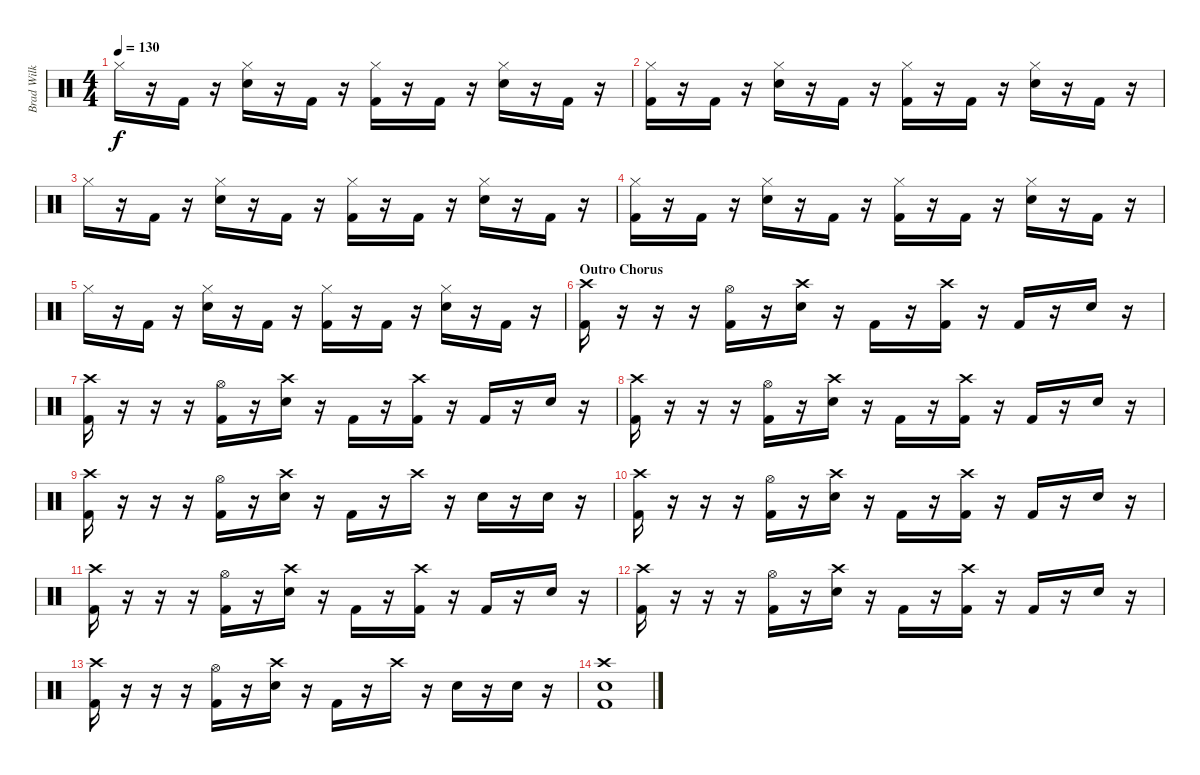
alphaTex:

\track ("Brad Wilk - Drums" "Brad Wilk ") {instrument percussion}
\staff {score}
\articulation defaults
\ts (4 4)
\tempo 130
\clef neutral
\ks c "Hi-Hat (closed)".16{dy f}
r.16 "Kick (hit) 2".16 r.16 ("Hi-Hat (closed)" "Electric Snare (hit)").16 r.16 "Kick (hit) 2".16 r.16 ("Hi-Hat (closed)" "Kick (hit) 2").16 r.16 "Kick (hit) 2".16 r.16 ("Hi-Hat (closed)" "Electric Snare (hit)").16 r.16 "Kick (hit) 2".16 r.16 |
("Hi-Hat (closed)" "Kick (hit) 2").16 r.16 "Kick (hit) 2".16 r.16 ("Hi-Hat (closed)" "Electric Snare (hit)").16 r.16 "Kick (hit) 2".16 r.16 ("Hi-Hat (closed)" "Kick (hit) 2").16 r.16 "Kick (hit) 2".16 r.16 ("Hi-Hat (closed)" "Electric Snare (hit)").16 r.16 "Kick (hit) 2".16 r.16 |
"Hi-Hat (closed)".16 r.16 "Kick (hit) 2".16 r.16 ("Hi-Hat (closed)" "Electric Snare (hit)").16 r.16 "Kick (hit) 2".16 r.16 ("Hi-Hat (closed)" "Kick (hit) 2").16 r.16 "Kick (hit) 2".16 r.16 ("Hi-Hat (closed)" "Electric Snare (hit)").16 r.16 "Kick (hit) 2".16 r.16 |
("Hi-Hat (closed)" "Kick (hit) 2").16 r.16 "Kick (hit) 2".16 r.16 ("Hi-Hat (closed)" "Electric Snare (hit)").16 r.16 "Kick (hit) 2".16 r.16 ("Hi-Hat (closed)" "Kick (hit) 2").16 r.16 "Kick (hit) 2".16 r.16 ("Hi-Hat (closed)" "Electric Snare (hit)").16 r.16 "Kick (hit) 2".16 r.16 |
"Hi-Hat (closed)".16 r.16 "Kick (hit) 2".16 r.16 ("Hi-Hat (closed)" "Electric Snare (hit)").16 r.16 "Kick (hit) 2".16 r.16 ("Hi-Hat (closed)" "Kick (hit) 2").16 r.16 "Kick (hit) 2".16 r.16 ("Hi-Hat (closed)" "Electric Snare (hit)").16 r.16 "Kick (hit) 2".16 r.16 |
\section ("" "Outro Chorus")
("Crash high (hit)" "Kick (hit) 2").16 r.16 r.16 r.16 ("Hi-Hat (open)" "Kick (hit) 2").16 r.16 ("Crash high (hit)" "Electric Snare (hit)").16 r.16 "Kick (hit) 2".16 r.16 ("Crash high (hit)" "Kick (hit) 2").16 r.16 "Kick (hit) 2".16 r.16 "Electric Snare (hit)".16 r.16 |
("Crash high (hit)" "Kick (hit) 2").16 r.16 r.16 r.16 ("Hi-Hat (open)" "Kick (hit) 2").16 r.16 ("Crash high (hit)" "Electric Snare (hit)").16 r.16 "Kick (hit) 2".16 r.16 ("Crash high (hit)" "Kick (hit) 2").16 r.16 "Kick (hit) 2".16 r.16 "Electric Snare (hit)".16 r.16 |
("Crash high (hit)" "Kick (hit) 2").16 r.16 r.16 r.16 ("Hi-Hat (open)" "Kick (hit) 2").16 r.16 ("Crash high (hit)" "Electric Snare (hit)").16 r.16 "Kick (hit) 2".16 r.16 ("Crash high (hit)" "Kick (hit) 2").16 r.16 "Kick (hit) 2".16 r.16 "Electric Snare (hit)".16 r.16 |
("Crash high (hit)" "Kick (hit) 2").16 r.16 r.16 r.16 ("Hi-Hat (open)" "Kick (hit) 2").16 r.16 ("Crash high (hit)" "Electric Snare (hit)").16 r.16 "Kick (hit) 2".16 r.16 "Crash high (hit)".16 r.16 "Electric Snare (hit)".16 r.16 "Electric Snare (hit)".16 r.16 |
("Crash high (hit)" "Kick (hit) 2").16 r.16 r.16 r.16 ("Hi-Hat (open)" "Kick (hit) 2").16 r.16 ("Crash high (hit)" "Electric Snare (hit)").16 r.16 "Kick (hit) 2".16 r.16 ("Crash high (hit)" "Kick (hit) 2").16 r.16 "Kick (hit) 2".16 r.16 "Electric Snare (hit)".16 r.16 |
("Crash high (hit)" "Kick (hit) 2").16 r.16 r.16 r.16 ("Hi-Hat (open)" "Kick (hit) 2").16 r.16 ("Crash high (hit)" "Electric Snare (hit)").16 r.16 "Kick (hit) 2".16 r.16 ("Crash high (hit)" "Kick (hit) 2").16 r.16 "Kick (hit) 2".16 r.16 "Electric Snare (hit)".16 r.16 |
("Crash high (hit)" "Kick (hit) 2").16 r.16 r.16 r.16 ("Hi-Hat (open)" "Kick (hit) 2").16 r.16 ("Crash high (hit)" "Electric Snare (hit)").16 r.16 "Kick (hit) 2".16 r.16 ("Crash high (hit)" "Kick (hit) 2").16 r.16 "Kick (hit) 2".16 r.16 "Electric Snare (hit)".16 r.16 |
("Crash high (hit)" "Kick (hit) 2").16 r.16 r.16 r.16 ("Hi-Hat (open)" "Kick (hit) 2").16 r.16 ("Crash high (hit)" "Electric Snare (hit)").16 r.16 "Kick (hit) 2".16 r.16 "Crash high (hit)".16 r.16 "Electric Snare (hit)".16 r.16 "Electric Snare (hit)".16 r.16 |
("Crash high (hit)" "Kick (hit) 2" "Electric Snare (hit)").1
